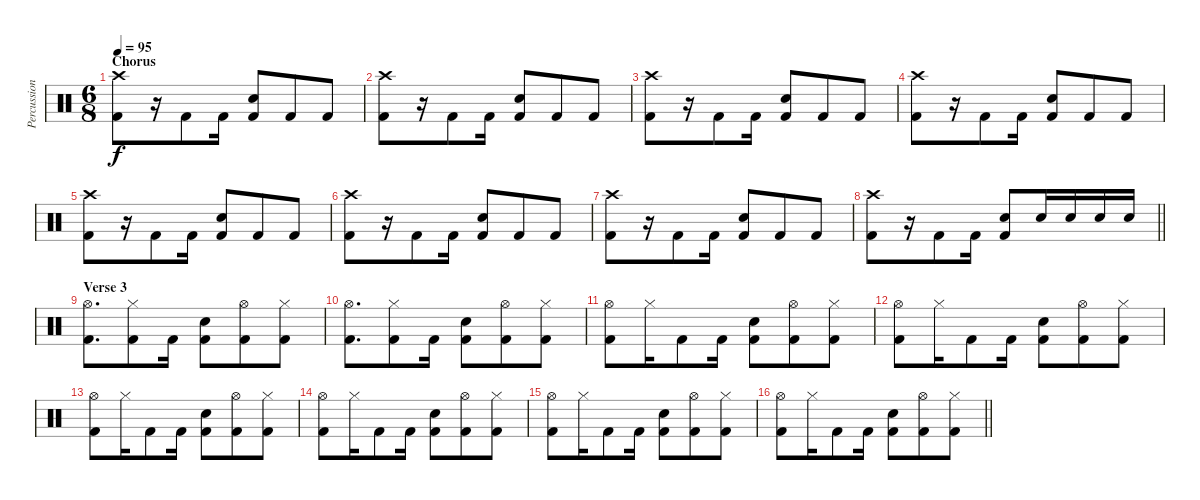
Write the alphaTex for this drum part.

\track ("Percussion" "Percussion") {instrument percussion}
\staff {score}
\articulation defaults
\ts (6 8)
\section ("" "Chorus")
\tempo 95
\clef neutral
\ks c
("Crash high (hit)" "Kick (hit) 2").8{dy f} r.16 "Kick (hit) 2".8 "Kick (hit) 2".16 ("Snare (hit) 2" "Kick (hit) 2").8 "Kick (hit) 2".8 "Kick (hit) 2".8 |
("Crash high (hit)" "Kick (hit) 2").8 r.16 "Kick (hit) 2".8 "Kick (hit) 2".16 ("Snare (hit) 2" "Kick (hit) 2").8 "Kick (hit) 2".8 "Kick (hit) 2".8 |
("Crash high (hit)" "Kick (hit) 2").8 r.16 "Kick (hit) 2".8 "Kick (hit) 2".16 ("Snare (hit) 2" "Kick (hit) 2").8 "Kick (hit) 2".8 "Kick (hit) 2".8 |
("Crash high (hit)" "Kick (hit) 2").8 r.16 "Kick (hit) 2".8 "Kick (hit) 2".16 ("Snare (hit) 2" "Kick (hit) 2").8 "Kick (hit) 2".8 "Kick (hit) 2".8 |
("Crash high (hit)" "Kick (hit) 2").8 r.16 "Kick (hit) 2".8 "Kick (hit) 2".16 ("Snare (hit) 2" "Kick (hit) 2").8 "Kick (hit) 2".8 "Kick (hit) 2".8 |
("Crash high (hit)" "Kick (hit) 2").8 r.16 "Kick (hit) 2".8 "Kick (hit) 2".16 ("Snare (hit) 2" "Kick (hit) 2").8 "Kick (hit) 2".8 "Kick (hit) 2".8 |
("Crash high (hit)" "Kick (hit) 2").8 r.16 "Kick (hit) 2".8 "Kick (hit) 2".16 ("Snare (hit) 2" "Kick (hit) 2").8 "Kick (hit) 2".8 "Kick (hit) 2".8 |
\barLineRight lightlight
("Crash high (hit)" "Kick (hit) 2").8 r.16 "Kick (hit) 2".8 "Kick (hit) 2".16 ("Snare (hit) 2" "Kick (hit) 2").8 "Snare (hit) 2".16 "Snare (hit) 2".16 "Snare (hit) 2".16 "Snare (hit) 2".16 |
\section ("" "Verse 3")
("Hi-Hat (open)" "Kick (hit) 2").8{d} ("Hi-Hat (closed)" "Kick (hit) 2").8 "Kick (hit) 2".16 ("Snare (hit) 2" "Kick (hit) 2").8 ("Hi-Hat (open)" "Kick (hit) 2").8 ("Hi-Hat (closed)" "Kick (hit) 2").8 |
("Hi-Hat (open)" "Kick (hit) 2").8{d} ("Hi-Hat (closed)" "Kick (hit) 2").8 "Kick (hit) 2".16 ("Snare (hit) 2" "Kick (hit) 2").8 ("Hi-Hat (open)" "Kick (hit) 2").8 ("Hi-Hat (closed)" "Kick (hit) 2").8 |
("Hi-Hat (open)" "Kick (hit) 2").8 "Hi-Hat (closed)".16 "Kick (hit) 2".8 "Kick (hit) 2".16 ("Snare (hit) 2" "Kick (hit) 2").8 ("Hi-Hat (open)" "Kick (hit) 2").8 ("Hi-Hat (closed)" "Kick (hit) 2").8 |
("Hi-Hat (open)" "Kick (hit) 2").8 "Hi-Hat (closed)".16 "Kick (hit) 2".8 "Kick (hit) 2".16 ("Snare (hit) 2" "Kick (hit) 2").8 ("Hi-Hat (open)" "Kick (hit) 2").8 ("Hi-Hat (closed)" "Kick (hit) 2").8 |
("Hi-Hat (open)" "Kick (hit) 2").8 "Hi-Hat (closed)".16 "Kick (hit) 2".8 "Kick (hit) 2".16 ("Snare (hit) 2" "Kick (hit) 2").8 ("Hi-Hat (open)" "Kick (hit) 2").8 ("Hi-Hat (closed)" "Kick (hit) 2").8 |
("Hi-Hat (open)" "Kick (hit) 2").8 "Hi-Hat (closed)".16 "Kick (hit) 2".8 "Kick (hit) 2".16 ("Snare (hit) 2" "Kick (hit) 2").8 ("Hi-Hat (open)" "Kick (hit) 2").8 ("Hi-Hat (closed)" "Kick (hit) 2").8 |
("Hi-Hat (open)" "Kick (hit) 2").8 "Hi-Hat (closed)".16 "Kick (hit) 2".8 "Kick (hit) 2".16 ("Snare (hit) 2" "Kick (hit) 2").8 ("Hi-Hat (open)" "Kick (hit) 2").8 ("Hi-Hat (closed)" "Kick (hit) 2").8 |
\barLineRight lightlight
("Hi-Hat (open)" "Kick (hit) 2").8 "Hi-Hat (closed)".16 "Kick (hit) 2".8 "Kick (hit) 2".16 ("Snare (hit) 2" "Kick (hit) 2").8 ("Hi-Hat (open)" "Kick (hit) 2").8 ("Hi-Hat (closed)" "Kick (hit) 2").8
